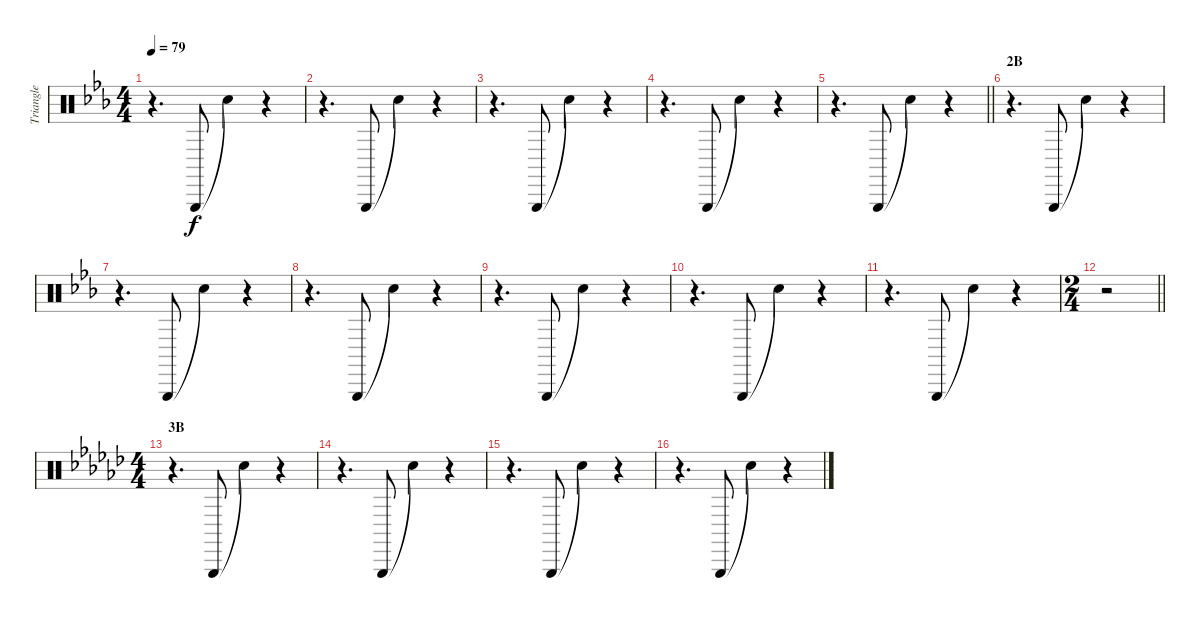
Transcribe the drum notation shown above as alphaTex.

\track ("Triangle" "Triangle") {instrument percussion}
\staff {score}
\articulation defaults
\ts (4 4)
\tempo 79
\clef neutral
\ks eb
r.4{d dy f} "Triangle (hit)".8 "Snare (hit)"{t}.4 r.4 |
r.4{d} "Triangle (hit)".8 "Snare (hit)"{t}.4 r.4 |
r.4{d} "Triangle (hit)".8 "Snare (hit)"{t}.4 r.4 |
r.4{d} "Triangle (hit)".8 "Snare (hit)"{t}.4 r.4 |
\barLineRight lightlight
r.4{d} "Triangle (hit)".8 "Snare (hit)"{t}.4 r.4 |
\section ("" "2B")
r.4{d} "Triangle (hit)".8 "Snare (hit)"{t}.4 r.4 |
r.4{d} "Triangle (hit)".8 "Snare (hit)"{t}.4 r.4 |
r.4{d} "Triangle (hit)".8 "Snare (hit)"{t}.4 r.4 |
r.4{d} "Triangle (hit)".8 "Snare (hit)"{t}.4 r.4 |
r.4{d} "Triangle (hit)".8 "Snare (hit)"{t}.4 r.4 |
r.4{d} "Triangle (hit)".8 "Snare (hit)"{t}.4 r.4 |
\ts (2 4)
\barLineRight lightlight
r.2 |
\ts (4 4)
\section ("" "3B")
\ks gb
r.4{d} "Triangle (hit)".8 "Snare (hit)"{t}.4 r.4 |
r.4{d} "Triangle (hit)".8 "Snare (hit)"{t}.4 r.4 |
r.4{d} "Triangle (hit)".8 "Snare (hit)"{t}.4 r.4 |
r.4{d} "Triangle (hit)".8 "Snare (hit)"{t}.4 r.4
